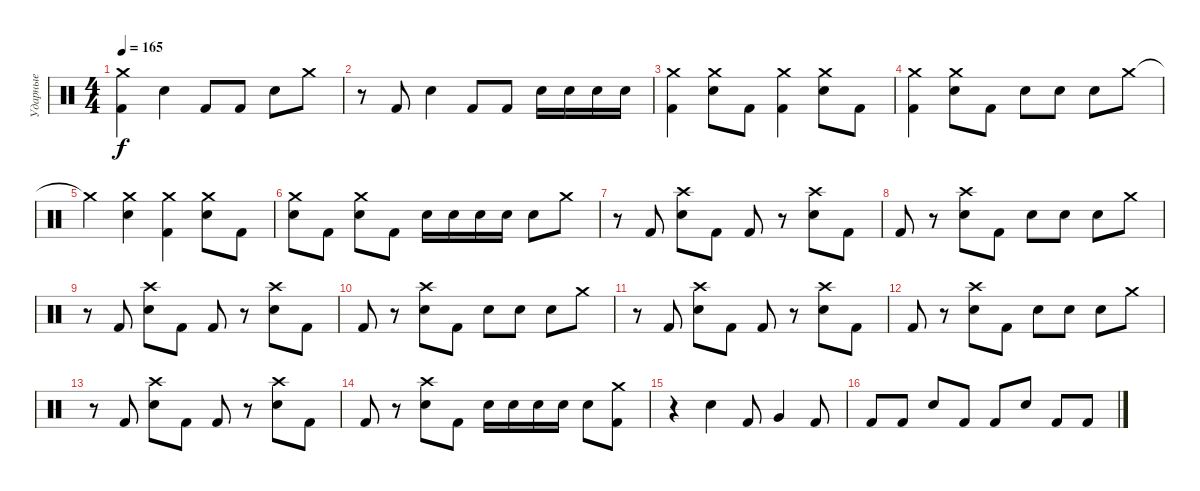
\track ("Ударные" "Ударные") {instrument percussion}
\staff {score}
\articulation defaults
\ts (4 4)
\tempo 165
\clef neutral
\ks c
("Crash medium (hit)" "Kick (hit) 2").4{dy f} "Snare (hit) 2".4 "Kick (hit) 2".8 "Kick (hit) 2".8 "Snare (hit) 2".8 "Crash medium (hit)".8 |
r.8 "Kick (hit) 2".8 "Snare (hit) 2".4 "Kick (hit) 2".8 "Kick (hit) 2".8 "Snare (hit) 2".16 "Snare (hit) 2".16 "Snare (hit) 2".16 "Snare (hit) 2".16 |
("Crash medium (hit)" "Kick (hit) 2").4 ("Crash medium (hit)" "Snare (hit) 2").8 "Kick (hit) 2".8 ("Crash medium (hit)" "Kick (hit) 2").4 ("Crash medium (hit)" "Snare (hit) 2").8 "Kick (hit) 2".8 |
("Crash medium (hit)" "Kick (hit) 2").4 ("Crash medium (hit)" "Snare (hit) 2").8 "Kick (hit) 2".8 "Snare (hit) 2".8 "Snare (hit) 2".8 "Snare (hit) 2".8 "Crash medium (hit)".8 |
"Crash medium (hit)"{t}.4 ("Crash medium (hit)" "Snare (hit) 2").4 ("Crash medium (hit)" "Kick (hit) 2").4 ("Crash medium (hit)" "Snare (hit) 2").8 "Kick (hit) 2".8 |
("Crash medium (hit)" "Snare (hit) 2").8 "Kick (hit) 2".8 ("Crash medium (hit)" "Snare (hit) 2").8 "Kick (hit) 2".8 "Snare (hit) 2".16 "Snare (hit) 2".16 "Snare (hit) 2".16 "Snare (hit) 2".16 "Snare (hit) 2".8 "Crash medium (hit)".8 |
r.8 "Kick (hit) 2".8 ("Crash high (hit)" "Snare (hit) 2").8 "Kick (hit) 2".8 "Kick (hit) 2".8 r.8 ("Crash high (hit)" "Snare (hit) 2").8 "Kick (hit) 2".8 |
"Kick (hit) 2".8 r.8 ("Crash high (hit)" "Snare (hit) 2").8 "Kick (hit) 2".8 "Snare (hit) 2".8 "Snare (hit) 2".8 "Snare (hit) 2".8 "Crash medium (hit)".8 |
r.8 "Kick (hit) 2".8 ("Crash high (hit)" "Snare (hit) 2").8 "Kick (hit) 2".8 "Kick (hit) 2".8 r.8 ("Crash high (hit)" "Snare (hit) 2").8 "Kick (hit) 2".8 |
"Kick (hit) 2".8 r.8 ("Crash high (hit)" "Snare (hit) 2").8 "Kick (hit) 2".8 "Snare (hit) 2".8 "Snare (hit) 2".8 "Snare (hit) 2".8 "Crash medium (hit)".8 |
r.8 "Kick (hit) 2".8 ("Crash high (hit)" "Snare (hit) 2").8 "Kick (hit) 2".8 "Kick (hit) 2".8 r.8 ("Crash high (hit)" "Snare (hit) 2").8 "Kick (hit) 2".8 |
"Kick (hit) 2".8 r.8 ("Crash high (hit)" "Snare (hit) 2").8 "Kick (hit) 2".8 "Snare (hit) 2".8 "Snare (hit) 2".8 "Snare (hit) 2".8 "Crash medium (hit)".8 |
r.8 "Kick (hit) 2".8 ("Crash high (hit)" "Snare (hit) 2").8 "Kick (hit) 2".8 "Kick (hit) 2".8 r.8 ("Crash high (hit)" "Snare (hit) 2").8 "Kick (hit) 2".8 |
"Kick (hit) 2".8 r.8 ("Crash high (hit)" "Snare (hit) 2").8 "Kick (hit) 2".8 "Snare (hit) 2".16 "Snare (hit) 2".16 "Snare (hit) 2".16 "Snare (hit) 2".16 "Snare (hit) 2".8 ("Crash medium (hit)" "Kick (hit) 2").8 |
r.4 "Snare (hit) 2".4 "Kick (hit) 2".8 "Very Low Tom (hit)".4 "Kick (hit) 2".8 |
"Kick (hit) 2".8 "Kick (hit) 2".8 "Snare (hit) 2".8 "Kick (hit) 2".8 "Kick (hit) 2".8 "Snare (hit) 2".8 "Kick (hit) 2".8 "Kick (hit) 2".8
